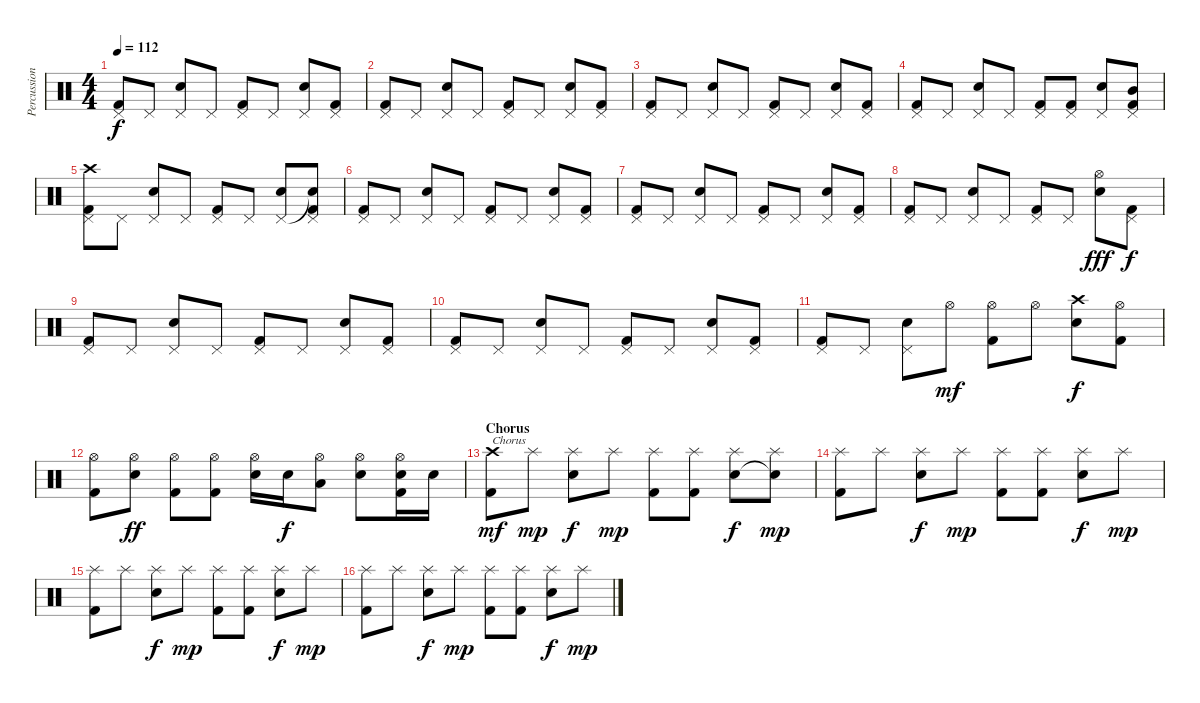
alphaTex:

\track ("Percussion" "Percussion") {instrument percussion}
\staff {score}
\articulation defaults
\ts (4 4)
\tempo 112
\clef neutral
\ks c
("Pedal Hi-Hat (hit)" "Kick (hit) 2").8{dy f} "Pedal Hi-Hat (hit)".8 ("Pedal Hi-Hat (hit)" "Electric Snare (hit)").8 "Pedal Hi-Hat (hit)".8 ("Pedal Hi-Hat (hit)" "Kick (hit) 2").8 "Pedal Hi-Hat (hit)".8 ("Pedal Hi-Hat (hit)" "Electric Snare (hit)").8 ("Pedal Hi-Hat (hit)" "Kick (hit) 2").8 |
("Pedal Hi-Hat (hit)" "Kick (hit) 2").8 "Pedal Hi-Hat (hit)".8 ("Pedal Hi-Hat (hit)" "Electric Snare (hit)").8 "Pedal Hi-Hat (hit)".8 ("Pedal Hi-Hat (hit)" "Kick (hit) 2").8 "Pedal Hi-Hat (hit)".8 ("Pedal Hi-Hat (hit)" "Electric Snare (hit)").8 ("Pedal Hi-Hat (hit)" "Kick (hit) 2").8 |
("Pedal Hi-Hat (hit)" "Kick (hit) 2").8 "Pedal Hi-Hat (hit)".8 ("Pedal Hi-Hat (hit)" "Electric Snare (hit)").8 "Pedal Hi-Hat (hit)".8 ("Pedal Hi-Hat (hit)" "Kick (hit) 2").8 "Pedal Hi-Hat (hit)".8 ("Pedal Hi-Hat (hit)" "Electric Snare (hit)").8 ("Pedal Hi-Hat (hit)" "Kick (hit) 2").8 |
("Pedal Hi-Hat (hit)" "Kick (hit) 2").8 "Pedal Hi-Hat (hit)".8 ("Pedal Hi-Hat (hit)" "Electric Snare (hit)").8 "Pedal Hi-Hat (hit)".8 ("Pedal Hi-Hat (hit)" "Kick (hit) 2").8 ("Pedal Hi-Hat (hit)" "Kick (hit) 2").8 ("Pedal Hi-Hat (hit)" "Electric Snare (hit)").8 ("Pedal Hi-Hat (hit)" "Mid Tom (hit)" "Kick (hit) 2").8 |
("Crash high (hit)" "Pedal Hi-Hat (hit)" "Kick (hit) 2").8 "Pedal Hi-Hat (hit)".8 ("Pedal Hi-Hat (hit)" "Electric Snare (hit)").8 "Pedal Hi-Hat (hit)".8 ("Pedal Hi-Hat (hit)" "Kick (hit) 2").8 "Pedal Hi-Hat (hit)".8 ("Pedal Hi-Hat (hit)" "Electric Snare (hit)").8 ("Snare (hit)"{t} "Pedal Hi-Hat (hit)" "Kick (hit) 2").8 |
("Pedal Hi-Hat (hit)" "Kick (hit) 2").8 "Pedal Hi-Hat (hit)".8 ("Pedal Hi-Hat (hit)" "Electric Snare (hit)").8 "Pedal Hi-Hat (hit)".8 ("Pedal Hi-Hat (hit)" "Kick (hit) 2").8 "Pedal Hi-Hat (hit)".8 ("Pedal Hi-Hat (hit)" "Electric Snare (hit)").8 ("Pedal Hi-Hat (hit)" "Kick (hit) 2").8 |
("Pedal Hi-Hat (hit)" "Kick (hit) 2").8 "Pedal Hi-Hat (hit)".8 ("Pedal Hi-Hat (hit)" "Electric Snare (hit)").8 "Pedal Hi-Hat (hit)".8 ("Pedal Hi-Hat (hit)" "Kick (hit) 2").8 "Pedal Hi-Hat (hit)".8 ("Pedal Hi-Hat (hit)" "Electric Snare (hit)").8 ("Pedal Hi-Hat (hit)" "Kick (hit) 2").8 |
("Pedal Hi-Hat (hit)" "Kick (hit) 2").8 "Pedal Hi-Hat (hit)".8 ("Pedal Hi-Hat (hit)" "Electric Snare (hit)").8 "Pedal Hi-Hat (hit)".8 ("Pedal Hi-Hat (hit)" "Kick (hit) 2").8 "Pedal Hi-Hat (hit)".8 ("Hi-Hat (open)" "Electric Snare (hit)").8{dy fff} ("Pedal Hi-Hat (hit)" "Kick (hit) 2").8{dy f} |
("Pedal Hi-Hat (hit)" "Kick (hit) 2").8 "Pedal Hi-Hat (hit)".8 ("Pedal Hi-Hat (hit)" "Electric Snare (hit)").8 "Pedal Hi-Hat (hit)".8 ("Pedal Hi-Hat (hit)" "Kick (hit) 2").8 "Pedal Hi-Hat (hit)".8 ("Pedal Hi-Hat (hit)" "Electric Snare (hit)").8 ("Pedal Hi-Hat (hit)" "Kick (hit) 2").8 |
("Pedal Hi-Hat (hit)" "Kick (hit) 2").8 "Pedal Hi-Hat (hit)".8 ("Pedal Hi-Hat (hit)" "Electric Snare (hit)").8 "Pedal Hi-Hat (hit)".8 ("Pedal Hi-Hat (hit)" "Kick (hit) 2").8 "Pedal Hi-Hat (hit)".8 ("Pedal Hi-Hat (hit)" "Electric Snare (hit)").8 ("Pedal Hi-Hat (hit)" "Kick (hit) 2").8 |
("Pedal Hi-Hat (hit)" "Kick (hit) 2").8 "Pedal Hi-Hat (hit)".8 ("Pedal Hi-Hat (hit)" "Electric Snare (hit)").8 "Hi-Hat (open)".8{dy mf} ("Hi-Hat (open)" "Kick (hit) 2").8 "Hi-Hat (open)".8 ("Crash high (hit)" "Electric Snare (hit)").8{dy f} ("Hi-Hat (open)" "Kick (hit) 2").8 |
("Hi-Hat (open)" "Kick (hit) 2").8 ("Hi-Hat (open)" "Electric Snare (hit)").8{dy ff} ("Hi-Hat (open)" "Kick (hit) 2").8 ("Hi-Hat (open)" "Kick (hit) 2").8 ("Hi-Hat (open)" "Snare (hit) 2").16 "Snare (hit) 2".16{dy f} ("Hi-Hat (open)" "Low Tom (hit)").8 ("Hi-Hat (open)" "Electric Snare (hit)").8 ("Hi-Hat (open)" "Electric Snare (hit)" "Kick (hit) 2").16 "Electric Snare (hit)".16 |
\section ("" "Chorus")
("Crash high (hit)" "Kick (hit) 2").8{txt "Chorus" dy mf volume 14} "Splash (hit)".8{dy mp} ("Splash (hit)" "Electric Snare (hit)").8{dy f} "Splash (hit)".8{dy mp} ("Splash (hit)" "Kick (hit) 2").8 ("Splash (hit)" "Kick (hit) 2").8 ("Splash (hit)" "Electric Snare (hit)").8{dy f} ("Splash (hit)" "Snare (hit)"{t}).8{dy mp} |
("Splash (hit)" "Kick (hit) 2").8 "Splash (hit)".8 ("Splash (hit)" "Electric Snare (hit)").8{dy f} "Splash (hit)".8{dy mp} ("Splash (hit)" "Kick (hit) 2").8 ("Splash (hit)" "Kick (hit) 2").8 ("Splash (hit)" "Electric Snare (hit)").8{dy f} "Splash (hit)".8{dy mp} |
("Splash (hit)" "Kick (hit) 2").8 "Splash (hit)".8 ("Splash (hit)" "Electric Snare (hit)").8{dy f} "Splash (hit)".8{dy mp} ("Splash (hit)" "Kick (hit) 2").8 ("Splash (hit)" "Kick (hit) 2").8 ("Splash (hit)" "Electric Snare (hit)").8{dy f} "Splash (hit)".8{dy mp} |
("Splash (hit)" "Kick (hit) 2").8 "Splash (hit)".8 ("Splash (hit)" "Electric Snare (hit)").8{dy f} "Splash (hit)".8{dy mp} ("Splash (hit)" "Kick (hit) 2").8 ("Splash (hit)" "Kick (hit) 2").8 ("Splash (hit)" "Electric Snare (hit)").8{dy f} "Splash (hit)".8{dy mp}
